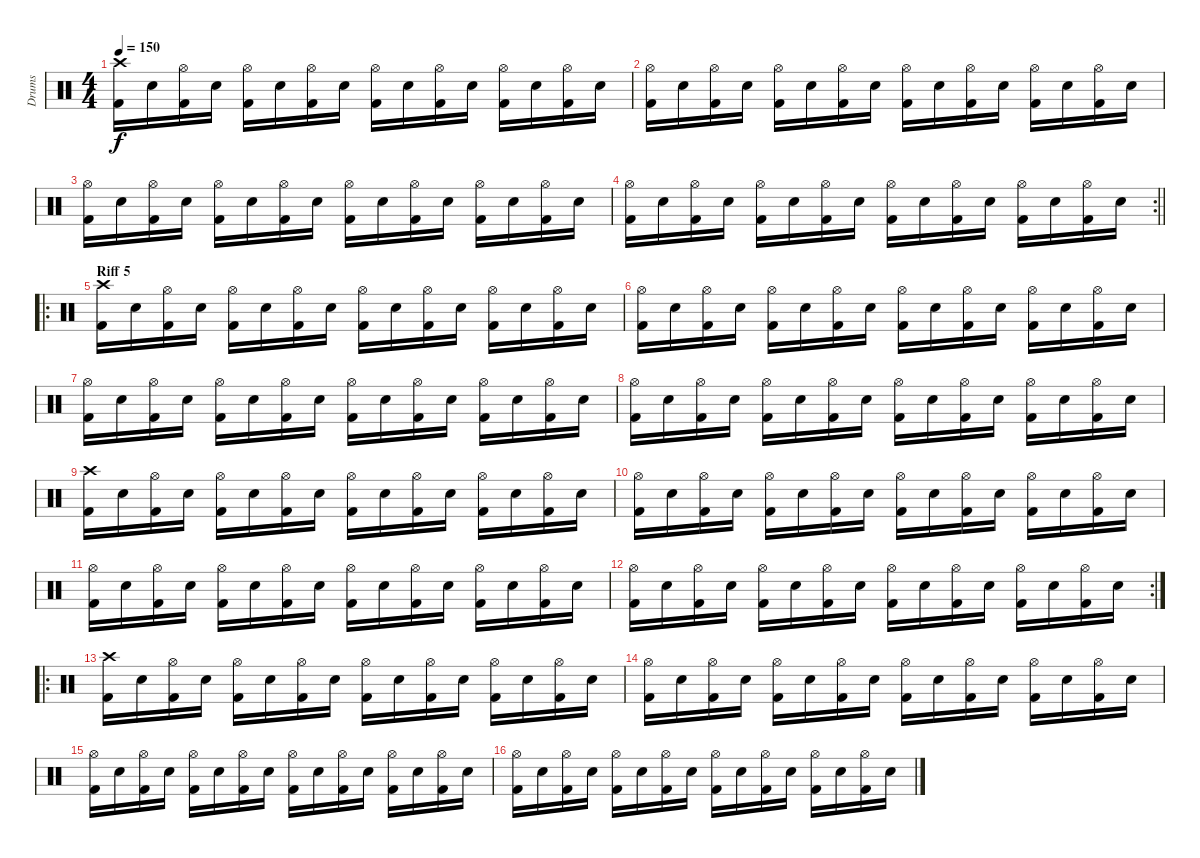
\track ("Drums" "Drums") {instrument percussion}
\staff {score}
\articulation defaults
\ts (4 4)
\tempo 150
\clef neutral
\ks c
("Crash high (hit)" "Kick (hit) 2").16{dy f} "Electric Snare (hit)".16 ("Hi-Hat (open)" "Kick (hit) 2").16 "Electric Snare (hit)".16 ("Hi-Hat (open)" "Kick (hit) 2").16 "Electric Snare (hit)".16 ("Hi-Hat (open)" "Kick (hit) 2").16 "Electric Snare (hit)".16 ("Hi-Hat (open)" "Kick (hit) 2").16 "Electric Snare (hit)".16 ("Hi-Hat (open)" "Kick (hit) 2").16 "Electric Snare (hit)".16 ("Hi-Hat (open)" "Kick (hit) 2").16 "Electric Snare (hit)".16 ("Hi-Hat (open)" "Kick (hit) 2").16 "Electric Snare (hit)".16 |
("Hi-Hat (open)" "Kick (hit) 2").16 "Electric Snare (hit)".16 ("Hi-Hat (open)" "Kick (hit) 2").16 "Electric Snare (hit)".16 ("Hi-Hat (open)" "Kick (hit) 2").16 "Electric Snare (hit)".16 ("Hi-Hat (open)" "Kick (hit) 2").16 "Electric Snare (hit)".16 ("Hi-Hat (open)" "Kick (hit) 2").16 "Electric Snare (hit)".16 ("Hi-Hat (open)" "Kick (hit) 2").16 "Electric Snare (hit)".16 ("Hi-Hat (open)" "Kick (hit) 2").16 "Electric Snare (hit)".16 ("Hi-Hat (open)" "Kick (hit) 2").16 "Electric Snare (hit)".16 |
("Hi-Hat (open)" "Kick (hit) 2").16 "Electric Snare (hit)".16 ("Hi-Hat (open)" "Kick (hit) 2").16 "Electric Snare (hit)".16 ("Hi-Hat (open)" "Kick (hit) 2").16 "Electric Snare (hit)".16 ("Hi-Hat (open)" "Kick (hit) 2").16 "Electric Snare (hit)".16 ("Hi-Hat (open)" "Kick (hit) 2").16 "Electric Snare (hit)".16 ("Hi-Hat (open)" "Kick (hit) 2").16 "Electric Snare (hit)".16 ("Hi-Hat (open)" "Kick (hit) 2").16 "Electric Snare (hit)".16 ("Hi-Hat (open)" "Kick (hit) 2").16 "Electric Snare (hit)".16 |
\rc 2
\barLineRight lightlight
("Hi-Hat (open)" "Kick (hit) 2").16 "Electric Snare (hit)".16 ("Hi-Hat (open)" "Kick (hit) 2").16 "Electric Snare (hit)".16 ("Hi-Hat (open)" "Kick (hit) 2").16 "Electric Snare (hit)".16 ("Hi-Hat (open)" "Kick (hit) 2").16 "Electric Snare (hit)".16 ("Hi-Hat (open)" "Kick (hit) 2").16 "Electric Snare (hit)".16 ("Hi-Hat (open)" "Kick (hit) 2").16 "Electric Snare (hit)".16 ("Hi-Hat (open)" "Kick (hit) 2").16 "Electric Snare (hit)".16 ("Hi-Hat (open)" "Kick (hit) 2").16 "Electric Snare (hit)".16 |
\ro
\section ("" "Riff 5")
("Crash high (hit)" "Kick (hit) 2").16 "Electric Snare (hit)".16 ("Hi-Hat (open)" "Kick (hit) 2").16 "Electric Snare (hit)".16 ("Hi-Hat (open)" "Kick (hit) 2").16 "Electric Snare (hit)".16 ("Hi-Hat (open)" "Kick (hit) 2").16 "Electric Snare (hit)".16 ("Hi-Hat (open)" "Kick (hit) 2").16 "Electric Snare (hit)".16 ("Hi-Hat (open)" "Kick (hit) 2").16 "Electric Snare (hit)".16 ("Hi-Hat (open)" "Kick (hit) 2").16 "Electric Snare (hit)".16 ("Hi-Hat (open)" "Kick (hit) 2").16 "Electric Snare (hit)".16 |
("Hi-Hat (open)" "Kick (hit) 2").16 "Electric Snare (hit)".16 ("Hi-Hat (open)" "Kick (hit) 2").16 "Electric Snare (hit)".16 ("Hi-Hat (open)" "Kick (hit) 2").16 "Electric Snare (hit)".16 ("Hi-Hat (open)" "Kick (hit) 2").16 "Electric Snare (hit)".16 ("Hi-Hat (open)" "Kick (hit) 2").16 "Electric Snare (hit)".16 ("Hi-Hat (open)" "Kick (hit) 2").16 "Electric Snare (hit)".16 ("Hi-Hat (open)" "Kick (hit) 2").16 "Electric Snare (hit)".16 ("Hi-Hat (open)" "Kick (hit) 2").16 "Electric Snare (hit)".16 |
("Hi-Hat (open)" "Kick (hit) 2").16 "Electric Snare (hit)".16 ("Hi-Hat (open)" "Kick (hit) 2").16 "Electric Snare (hit)".16 ("Hi-Hat (open)" "Kick (hit) 2").16 "Electric Snare (hit)".16 ("Hi-Hat (open)" "Kick (hit) 2").16 "Electric Snare (hit)".16 ("Hi-Hat (open)" "Kick (hit) 2").16 "Electric Snare (hit)".16 ("Hi-Hat (open)" "Kick (hit) 2").16 "Electric Snare (hit)".16 ("Hi-Hat (open)" "Kick (hit) 2").16 "Electric Snare (hit)".16 ("Hi-Hat (open)" "Kick (hit) 2").16 "Electric Snare (hit)".16 |
("Hi-Hat (open)" "Kick (hit) 2").16 "Electric Snare (hit)".16 ("Hi-Hat (open)" "Kick (hit) 2").16 "Electric Snare (hit)".16 ("Hi-Hat (open)" "Kick (hit) 2").16 "Electric Snare (hit)".16 ("Hi-Hat (open)" "Kick (hit) 2").16 "Electric Snare (hit)".16 ("Hi-Hat (open)" "Kick (hit) 2").16 "Electric Snare (hit)".16 ("Hi-Hat (open)" "Kick (hit) 2").16 "Electric Snare (hit)".16 ("Hi-Hat (open)" "Kick (hit) 2").16 "Electric Snare (hit)".16 ("Hi-Hat (open)" "Kick (hit) 2").16 "Electric Snare (hit)".16 |
("Crash high (hit)" "Kick (hit) 2").16 "Electric Snare (hit)".16 ("Hi-Hat (open)" "Kick (hit) 2").16 "Electric Snare (hit)".16 ("Hi-Hat (open)" "Kick (hit) 2").16 "Electric Snare (hit)".16 ("Hi-Hat (open)" "Kick (hit) 2").16 "Electric Snare (hit)".16 ("Hi-Hat (open)" "Kick (hit) 2").16 "Electric Snare (hit)".16 ("Hi-Hat (open)" "Kick (hit) 2").16 "Electric Snare (hit)".16 ("Hi-Hat (open)" "Kick (hit) 2").16 "Electric Snare (hit)".16 ("Hi-Hat (open)" "Kick (hit) 2").16 "Electric Snare (hit)".16 |
("Hi-Hat (open)" "Kick (hit) 2").16 "Electric Snare (hit)".16 ("Hi-Hat (open)" "Kick (hit) 2").16 "Electric Snare (hit)".16 ("Hi-Hat (open)" "Kick (hit) 2").16 "Electric Snare (hit)".16 ("Hi-Hat (open)" "Kick (hit) 2").16 "Electric Snare (hit)".16 ("Hi-Hat (open)" "Kick (hit) 2").16 "Electric Snare (hit)".16 ("Hi-Hat (open)" "Kick (hit) 2").16 "Electric Snare (hit)".16 ("Hi-Hat (open)" "Kick (hit) 2").16 "Electric Snare (hit)".16 ("Hi-Hat (open)" "Kick (hit) 2").16 "Electric Snare (hit)".16 |
("Hi-Hat (open)" "Kick (hit) 2").16 "Electric Snare (hit)".16 ("Hi-Hat (open)" "Kick (hit) 2").16 "Electric Snare (hit)".16 ("Hi-Hat (open)" "Kick (hit) 2").16 "Electric Snare (hit)".16 ("Hi-Hat (open)" "Kick (hit) 2").16 "Electric Snare (hit)".16 ("Hi-Hat (open)" "Kick (hit) 2").16 "Electric Snare (hit)".16 ("Hi-Hat (open)" "Kick (hit) 2").16 "Electric Snare (hit)".16 ("Hi-Hat (open)" "Kick (hit) 2").16 "Electric Snare (hit)".16 ("Hi-Hat (open)" "Kick (hit) 2").16 "Electric Snare (hit)".16 |
\rc 2
("Hi-Hat (open)" "Kick (hit) 2").16 "Electric Snare (hit)".16 ("Hi-Hat (open)" "Kick (hit) 2").16 "Electric Snare (hit)".16 ("Hi-Hat (open)" "Kick (hit) 2").16 "Electric Snare (hit)".16 ("Hi-Hat (open)" "Kick (hit) 2").16 "Electric Snare (hit)".16 ("Hi-Hat (open)" "Kick (hit) 2").16 "Electric Snare (hit)".16 ("Hi-Hat (open)" "Kick (hit) 2").16 "Electric Snare (hit)".16 ("Hi-Hat (open)" "Kick (hit) 2").16 "Electric Snare (hit)".16 ("Hi-Hat (open)" "Kick (hit) 2").16 "Electric Snare (hit)".16 |
\ro
("Crash high (hit)" "Kick (hit) 2").16 "Electric Snare (hit)".16 ("Hi-Hat (open)" "Kick (hit) 2").16 "Electric Snare (hit)".16 ("Hi-Hat (open)" "Kick (hit) 2").16 "Electric Snare (hit)".16 ("Hi-Hat (open)" "Kick (hit) 2").16 "Electric Snare (hit)".16 ("Hi-Hat (open)" "Kick (hit) 2").16 "Electric Snare (hit)".16 ("Hi-Hat (open)" "Kick (hit) 2").16 "Electric Snare (hit)".16 ("Hi-Hat (open)" "Kick (hit) 2").16 "Electric Snare (hit)".16 ("Hi-Hat (open)" "Kick (hit) 2").16 "Electric Snare (hit)".16 |
("Hi-Hat (open)" "Kick (hit) 2").16 "Electric Snare (hit)".16 ("Hi-Hat (open)" "Kick (hit) 2").16 "Electric Snare (hit)".16 ("Hi-Hat (open)" "Kick (hit) 2").16 "Electric Snare (hit)".16 ("Hi-Hat (open)" "Kick (hit) 2").16 "Electric Snare (hit)".16 ("Hi-Hat (open)" "Kick (hit) 2").16 "Electric Snare (hit)".16 ("Hi-Hat (open)" "Kick (hit) 2").16 "Electric Snare (hit)".16 ("Hi-Hat (open)" "Kick (hit) 2").16 "Electric Snare (hit)".16 ("Hi-Hat (open)" "Kick (hit) 2").16 "Electric Snare (hit)".16 |
("Hi-Hat (open)" "Kick (hit) 2").16 "Electric Snare (hit)".16 ("Hi-Hat (open)" "Kick (hit) 2").16 "Electric Snare (hit)".16 ("Hi-Hat (open)" "Kick (hit) 2").16 "Electric Snare (hit)".16 ("Hi-Hat (open)" "Kick (hit) 2").16 "Electric Snare (hit)".16 ("Hi-Hat (open)" "Kick (hit) 2").16 "Electric Snare (hit)".16 ("Hi-Hat (open)" "Kick (hit) 2").16 "Electric Snare (hit)".16 ("Hi-Hat (open)" "Kick (hit) 2").16 "Electric Snare (hit)".16 ("Hi-Hat (open)" "Kick (hit) 2").16 "Electric Snare (hit)".16 |
("Hi-Hat (open)" "Kick (hit) 2").16 "Electric Snare (hit)".16 ("Hi-Hat (open)" "Kick (hit) 2").16 "Electric Snare (hit)".16 ("Hi-Hat (open)" "Kick (hit) 2").16 "Electric Snare (hit)".16 ("Hi-Hat (open)" "Kick (hit) 2").16 "Electric Snare (hit)".16 ("Hi-Hat (open)" "Kick (hit) 2").16 "Electric Snare (hit)".16 ("Hi-Hat (open)" "Kick (hit) 2").16 "Electric Snare (hit)".16 ("Hi-Hat (open)" "Kick (hit) 2").16 "Electric Snare (hit)".16 ("Hi-Hat (open)" "Kick (hit) 2").16 "Electric Snare (hit)".16
